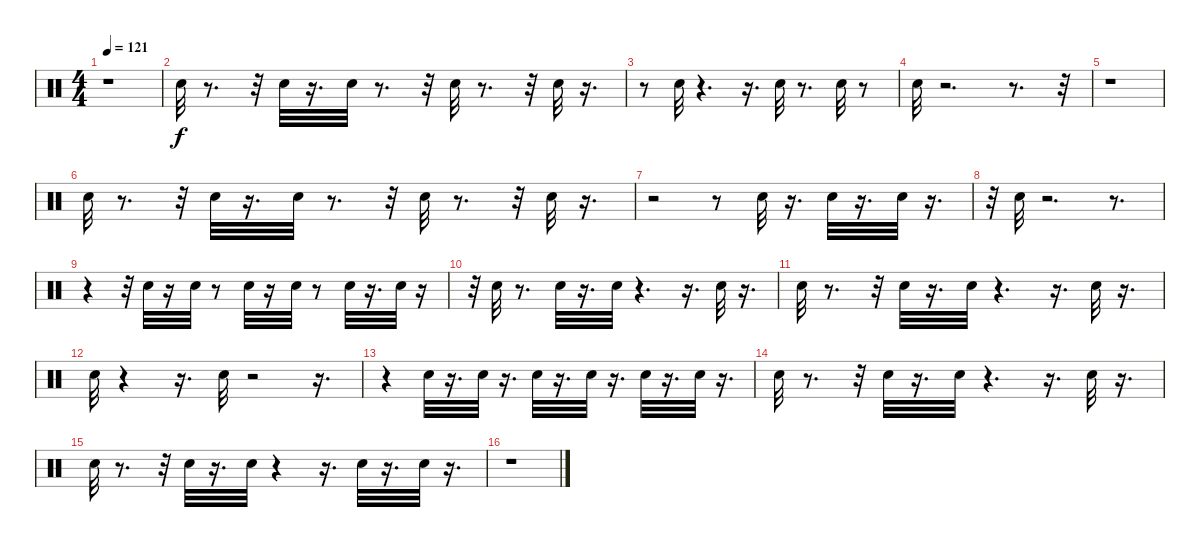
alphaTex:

\track "" {instrument percussion}
\staff {score}
\articulation defaults
\ts (4 4)
\tempo 121
\clef neutral
\ks c
r.1{dy f} |
"Snare (hit)".32 r.8{d} r.32 "Snare (hit)".32 r.16{d} "Snare (hit)".32 r.8{d} r.32 "Snare (hit)".32 r.8{d} r.32 "Snare (hit)".32 r.16{d} |
r.8 "Snare (hit)".32 r.4{d} r.16{d} "Snare (hit)".32 r.8{d} "Snare (hit)".32 r.8 |
"Snare (hit)".32 r.2{d} r.8{d} r.32 |
r.1 |
"Snare (hit)".32 r.8{d} r.32 "Snare (hit)".32 r.16{d} "Snare (hit)".32 r.8{d} r.32 "Snare (hit)".32 r.8{d} r.32 "Snare (hit)".32 r.16{d} |
r.2 r.8 "Snare (hit)".32 r.16{d} "Snare (hit)".32 r.16{d} "Snare (hit)".32 r.16{d} |
r.32 "Snare (hit)".32 r.2{d} r.8{d} |
r.4 r.32 "Snare (hit)".32 r.16 "Snare (hit)".32 r.8 "Snare (hit)".32 r.16 "Snare (hit)".32 r.8 "Snare (hit)".32 r.16{d} "Snare (hit)".32 r.16 |
r.32 "Snare (hit)".32 r.8{d} "Snare (hit)".32 r.16{d} "Snare (hit)".32 r.4{d} r.16{d} "Snare (hit)".32 r.16{d} |
"Snare (hit)".32 r.8{d} r.32 "Snare (hit)".32 r.16{d} "Snare (hit)".32 r.4{d} r.16{d} "Snare (hit)".32 r.16{d} |
"Snare (hit)".32 r.4 r.16{d} "Snare (hit)".32 r.2 r.16{d} |
r.4 "Snare (hit)".32 r.16{d} "Snare (hit)".32 r.16{d} "Snare (hit)".32 r.16{d} "Snare (hit)".32 r.16{d} "Snare (hit)".32 r.16{d} "Snare (hit)".32 r.16{d} |
"Snare (hit)".32 r.8{d} r.32 "Snare (hit)".32 r.16{d} "Snare (hit)".32 r.4{d} r.16{d} "Snare (hit)".32 r.16{d} |
"Snare (hit)".32 r.8{d} r.32 "Snare (hit)".32 r.16{d} "Snare (hit)".32 r.4 r.16{d} "Snare (hit)".32 r.16{d} "Snare (hit)".32 r.16{d} |
r.1
